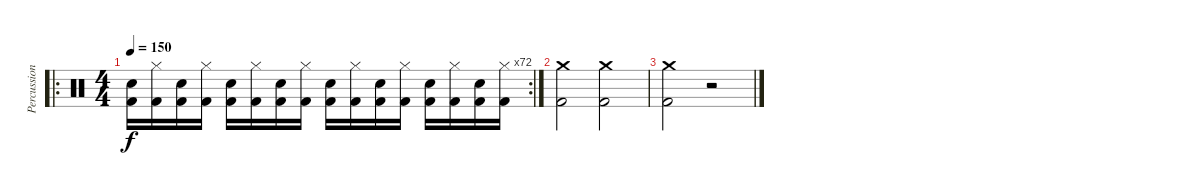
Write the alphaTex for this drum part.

\track ("Percussion" "Percussion") {instrument percussion}
\staff {score}
\articulation defaults
\ro
\rc 72
\ts (4 4)
\tempo 150
\clef neutral
\ks c
("Snare (hit) 2" "Kick (hit) 2").16{dy f} ("Hi-Hat (closed)" "Kick (hit) 2").16 ("Snare (hit) 2" "Kick (hit) 2").16 ("Hi-Hat (closed)" "Kick (hit) 2").16 ("Snare (hit) 2" "Kick (hit) 2").16 ("Hi-Hat (closed)" "Kick (hit) 2").16 ("Snare (hit) 2" "Kick (hit) 2").16 ("Hi-Hat (closed)" "Kick (hit) 2").16 ("Snare (hit) 2" "Kick (hit) 2").16 ("Hi-Hat (closed)" "Kick (hit) 2").16 ("Snare (hit) 2" "Kick (hit) 2").16 ("Hi-Hat (closed)" "Kick (hit) 2").16 ("Snare (hit) 2" "Kick (hit) 2").16 ("Hi-Hat (closed)" "Kick (hit) 2").16 ("Snare (hit) 2" "Kick (hit) 2").16 ("Hi-Hat (closed)" "Kick (hit) 2").16 |
("Crash medium (hit)" "Kick (hit) 2").2 ("Crash medium (hit)" "Kick (hit) 2").2 |
("Crash medium (hit)" "Kick (hit) 2").2 r.2
